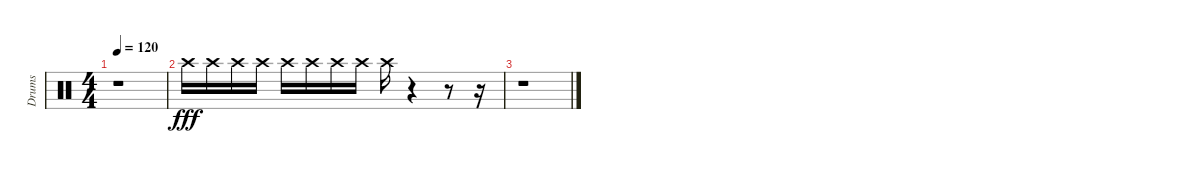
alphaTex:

\track ("Drums" "Drums") {instrument percussion}
\staff {score}
\articulation defaults
\ts (4 4)
\tempo 120
\clef neutral
\ks c
r.1{dy ff} |
"Crash high (hit)".16{dy fff volume 15} "Crash high (hit)".16 "Crash high (hit)".16 "Crash high (hit)".16 "Crash high (hit)".16 "Crash high (hit)".16 "Crash high (hit)".16 "Crash high (hit)".16 "Crash high (hit)".16 r.4 r.8 r.16 |
r.1
